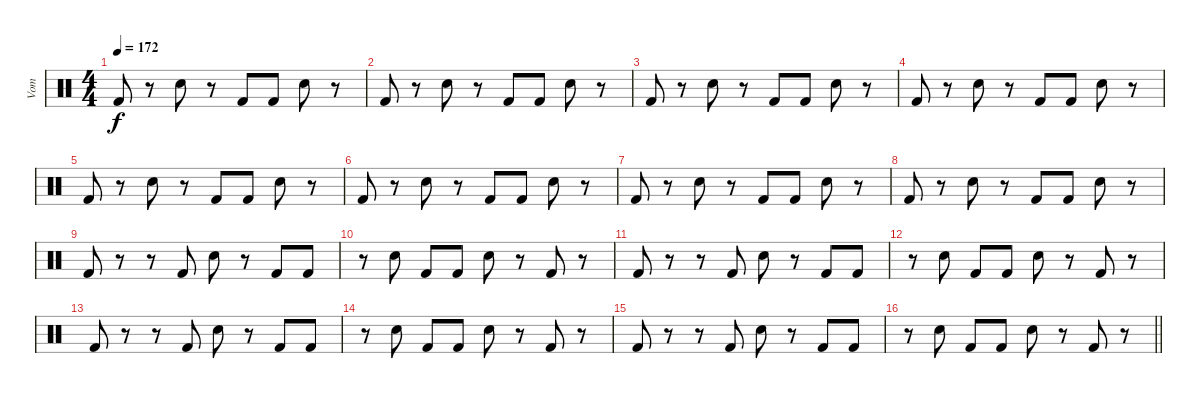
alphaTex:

\track ("Vom" "Vom") {instrument percussion}
\staff {score}
\articulation defaults
\ts (4 4)
\tempo 172
\clef neutral
\ks c "Kick (hit) 2".8{dy f}
r.8 "Snare (hit) 2".8 r.8 "Kick (hit) 2".8 "Kick (hit) 2".8 "Snare (hit) 2".8 r.8 |
"Kick (hit) 2".8 r.8 "Snare (hit) 2".8 r.8 "Kick (hit) 2".8 "Kick (hit) 2".8 "Snare (hit) 2".8 r.8 |
"Kick (hit) 2".8 r.8 "Snare (hit) 2".8 r.8 "Kick (hit) 2".8 "Kick (hit) 2".8 "Snare (hit) 2".8 r.8 |
"Kick (hit) 2".8 r.8 "Snare (hit) 2".8 r.8 "Kick (hit) 2".8 "Kick (hit) 2".8 "Snare (hit) 2".8 r.8 |
"Kick (hit) 2".8 r.8 "Snare (hit) 2".8 r.8 "Kick (hit) 2".8 "Kick (hit) 2".8 "Snare (hit) 2".8 r.8 |
"Kick (hit) 2".8 r.8 "Snare (hit) 2".8 r.8 "Kick (hit) 2".8 "Kick (hit) 2".8 "Snare (hit) 2".8 r.8 |
"Kick (hit) 2".8 r.8 "Snare (hit) 2".8 r.8 "Kick (hit) 2".8 "Kick (hit) 2".8 "Snare (hit) 2".8 r.8 |
"Kick (hit) 2".8 r.8 "Snare (hit) 2".8 r.8 "Kick (hit) 2".8 "Kick (hit) 2".8 "Snare (hit) 2".8 r.8 |
"Kick (hit) 2".8 r.8 r.8 "Kick (hit) 2".8 "Snare (hit) 2".8 r.8 "Kick (hit) 2".8 "Kick (hit) 2".8 |
r.8 "Snare (hit) 2".8 "Kick (hit) 2".8 "Kick (hit) 2".8 "Snare (hit) 2".8 r.8 "Kick (hit) 2".8 r.8 |
"Kick (hit) 2".8 r.8 r.8 "Kick (hit) 2".8 "Snare (hit) 2".8 r.8 "Kick (hit) 2".8 "Kick (hit) 2".8 |
r.8 "Snare (hit) 2".8 "Kick (hit) 2".8 "Kick (hit) 2".8 "Snare (hit) 2".8 r.8 "Kick (hit) 2".8 r.8 |
"Kick (hit) 2".8 r.8 r.8 "Kick (hit) 2".8 "Snare (hit) 2".8 r.8 "Kick (hit) 2".8 "Kick (hit) 2".8 |
r.8 "Snare (hit) 2".8 "Kick (hit) 2".8 "Kick (hit) 2".8 "Snare (hit) 2".8 r.8 "Kick (hit) 2".8 r.8 |
"Kick (hit) 2".8 r.8 r.8 "Kick (hit) 2".8 "Snare (hit) 2".8 r.8 "Kick (hit) 2".8 "Kick (hit) 2".8 |
\barLineRight lightlight
r.8 "Snare (hit) 2".8 "Kick (hit) 2".8 "Kick (hit) 2".8 "Snare (hit) 2".8 r.8 "Kick (hit) 2".8 r.8
